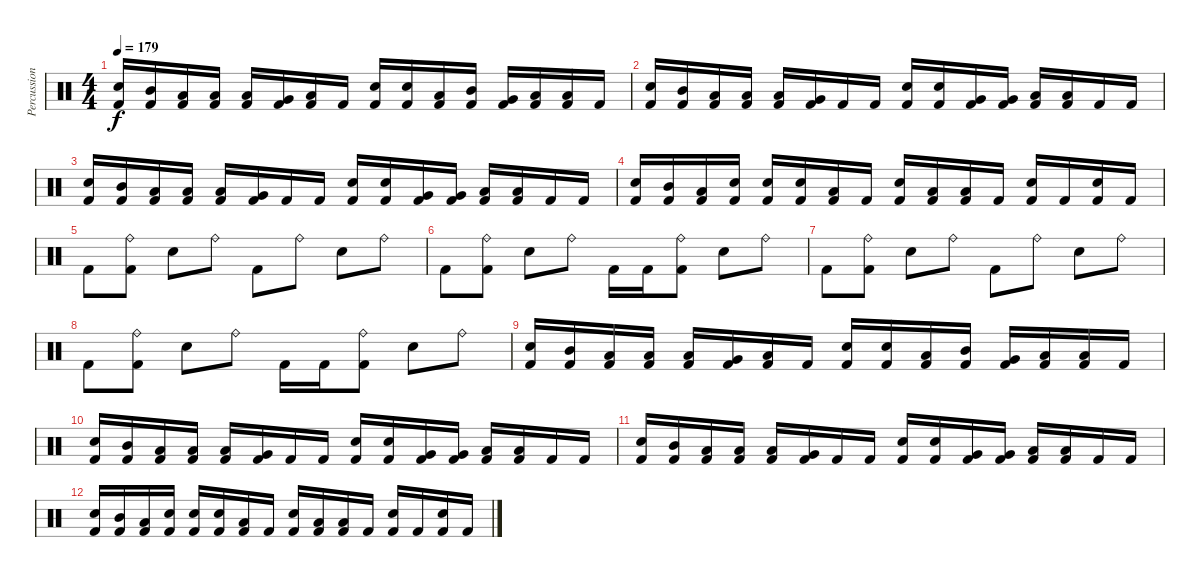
\track ("Percussion" "Percussion") {instrument percussion}
\staff {score}
\articulation defaults
\ts (4 4)
\tempo 179
\clef neutral
\ks c
("Electric Snare (hit)" "Kick (hit) 2").16{dy f} ("Mid Tom (hit)" "Kick (hit) 2").16 ("Low Tom (hit)" "Kick (hit) 2").16 ("Low Tom (hit)" "Kick (hit) 2").16 ("Low Tom (hit)" "Kick (hit) 2").16 ("Very Low Tom (hit)" "Kick (hit) 2").16 ("Low Floor Tom (hit)" "Kick (hit) 2").16 "Kick (hit) 2".16 ("Electric Snare (hit)" "Kick (hit) 2").16 ("Electric Snare (hit)" "Kick (hit) 2").16 ("Low Tom (hit)" "Kick (hit) 2").16 ("Mid Tom (hit)" "Kick (hit) 2").16 ("Very Low Tom (hit)" "Kick (hit) 2").16 ("Low Floor Tom (hit)" "Kick (hit) 2").16 ("Low Floor Tom (hit)" "Kick (hit) 2").16 "Kick (hit) 2".16 |
("Electric Snare (hit)" "Kick (hit) 2").16 ("Mid Tom (hit)" "Kick (hit) 2").16 ("Low Tom (hit)" "Kick (hit) 2").16 ("Low Tom (hit)" "Kick (hit) 2").16 ("Low Tom (hit)" "Kick (hit) 2").16 ("Very Low Tom (hit)" "Kick (hit) 2").16 "Kick (hit) 2".16 "Kick (hit) 2".16 ("Electric Snare (hit)" "Kick (hit) 2").16 ("Electric Snare (hit)" "Kick (hit) 2").16 ("Very Low Tom (hit)" "Kick (hit) 2").16 ("Very Low Tom (hit)" "Kick (hit) 2").16 ("Low Floor Tom (hit)" "Kick (hit) 2").16 ("Low Floor Tom (hit)" "Kick (hit) 2").16 "Kick (hit) 2".16 "Kick (hit) 2".16 |
("Electric Snare (hit)" "Kick (hit) 2").16 ("Mid Tom (hit)" "Kick (hit) 2").16 ("Low Tom (hit)" "Kick (hit) 2").16 ("Low Tom (hit)" "Kick (hit) 2").16 ("Low Tom (hit)" "Kick (hit) 2").16 ("Very Low Tom (hit)" "Kick (hit) 2").16 "Kick (hit) 2".16 "Kick (hit) 2".16 ("Electric Snare (hit)" "Kick (hit) 2").16 ("Electric Snare (hit)" "Kick (hit) 2").16 ("Very Low Tom (hit)" "Kick (hit) 2").16 ("Very Low Tom (hit)" "Kick (hit) 2").16 ("Low Floor Tom (hit)" "Kick (hit) 2").16 ("Low Floor Tom (hit)" "Kick (hit) 2").16 "Kick (hit) 2".16 "Kick (hit) 2".16 |
("Electric Snare (hit)" "Kick (hit) 2").16 ("Mid Tom (hit)" "Kick (hit) 2").16 ("Low Tom (hit)" "Kick (hit) 2").16 ("Electric Snare (hit)" "Kick (hit) 2").16 ("Electric Snare (hit)" "Kick (hit) 2").16 ("Electric Snare (hit)" "Kick (hit) 2").16 ("Low Floor Tom (hit)" "Kick (hit) 2").16 "Kick (hit) 2".16 ("Electric Snare (hit)" "Kick (hit) 2").16 ("Low Tom (hit)" "Kick (hit) 2").16 ("Low Tom (hit)" "Kick (hit) 2").16 "Kick (hit) 2".16 ("Electric Snare (hit)" "Kick (hit) 2").16 "Kick (hit) 2".16 ("Electric Snare (hit)" "Kick (hit) 2").16 "Kick (hit) 2".16 |
"Kick (hit) 2".8 ("Ride (bell)" "Kick (hit) 2").8 "Electric Snare (hit)".8 "Ride (bell)".8 "Kick (hit) 2".8 "Ride (bell)".8 "Electric Snare (hit)".8 "Ride (bell)".8 |
"Kick (hit) 2".8 ("Ride (bell)" "Kick (hit) 2").8 "Electric Snare (hit)".8 "Ride (bell)".8 "Kick (hit) 2".16 "Kick (hit) 2".16 ("Ride (bell)" "Kick (hit) 2").8 "Electric Snare (hit)".8 "Ride (bell)".8 |
"Kick (hit) 2".8 ("Ride (bell)" "Kick (hit) 2").8 "Electric Snare (hit)".8 "Ride (bell)".8 "Kick (hit) 2".8 "Ride (bell)".8 "Electric Snare (hit)".8 "Ride (bell)".8 |
"Kick (hit) 2".8 ("Ride (bell)" "Kick (hit) 2").8 "Electric Snare (hit)".8 "Ride (bell)".8 "Kick (hit) 2".16 "Kick (hit) 2".16 ("Ride (bell)" "Kick (hit) 2").8 "Electric Snare (hit)".8 "Ride (bell)".8 |
("Electric Snare (hit)" "Kick (hit) 2").16{volume 10} ("Mid Tom (hit)" "Kick (hit) 2").16 ("Low Tom (hit)" "Kick (hit) 2").16 ("Low Tom (hit)" "Kick (hit) 2").16 ("Low Tom (hit)" "Kick (hit) 2").16 ("Very Low Tom (hit)" "Kick (hit) 2").16 ("Low Floor Tom (hit)" "Kick (hit) 2").16 "Kick (hit) 2".16 ("Electric Snare (hit)" "Kick (hit) 2").16 ("Electric Snare (hit)" "Kick (hit) 2").16 ("Low Tom (hit)" "Kick (hit) 2").16 ("Mid Tom (hit)" "Kick (hit) 2").16 ("Very Low Tom (hit)" "Kick (hit) 2").16 ("Low Floor Tom (hit)" "Kick (hit) 2").16 ("Low Floor Tom (hit)" "Kick (hit) 2").16 "Kick (hit) 2".16 |
("Electric Snare (hit)" "Kick (hit) 2").16 ("Mid Tom (hit)" "Kick (hit) 2").16 ("Low Tom (hit)" "Kick (hit) 2").16 ("Low Tom (hit)" "Kick (hit) 2").16 ("Low Tom (hit)" "Kick (hit) 2").16 ("Very Low Tom (hit)" "Kick (hit) 2").16 "Kick (hit) 2".16 "Kick (hit) 2".16 ("Electric Snare (hit)" "Kick (hit) 2").16 ("Electric Snare (hit)" "Kick (hit) 2").16 ("Very Low Tom (hit)" "Kick (hit) 2").16 ("Very Low Tom (hit)" "Kick (hit) 2").16 ("Low Floor Tom (hit)" "Kick (hit) 2").16 ("Low Floor Tom (hit)" "Kick (hit) 2").16 "Kick (hit) 2".16 "Kick (hit) 2".16 |
("Electric Snare (hit)" "Kick (hit) 2").16{volume 0} ("Mid Tom (hit)" "Kick (hit) 2").16 ("Low Tom (hit)" "Kick (hit) 2").16 ("Low Tom (hit)" "Kick (hit) 2").16 ("Low Tom (hit)" "Kick (hit) 2").16 ("Very Low Tom (hit)" "Kick (hit) 2").16 "Kick (hit) 2".16 "Kick (hit) 2".16 ("Electric Snare (hit)" "Kick (hit) 2").16 ("Electric Snare (hit)" "Kick (hit) 2").16 ("Very Low Tom (hit)" "Kick (hit) 2").16 ("Very Low Tom (hit)" "Kick (hit) 2").16 ("Low Floor Tom (hit)" "Kick (hit) 2").16 ("Low Floor Tom (hit)" "Kick (hit) 2").16 "Kick (hit) 2".16 "Kick (hit) 2".16 |
("Electric Snare (hit)" "Kick (hit) 2").16 ("Mid Tom (hit)" "Kick (hit) 2").16 ("Low Tom (hit)" "Kick (hit) 2").16 ("Electric Snare (hit)" "Kick (hit) 2").16 ("Electric Snare (hit)" "Kick (hit) 2").16 ("Electric Snare (hit)" "Kick (hit) 2").16 ("Low Floor Tom (hit)" "Kick (hit) 2").16 "Kick (hit) 2".16 ("Electric Snare (hit)" "Kick (hit) 2").16 ("Low Tom (hit)" "Kick (hit) 2").16 ("Low Tom (hit)" "Kick (hit) 2").16 "Kick (hit) 2".16 ("Electric Snare (hit)" "Kick (hit) 2").16 "Kick (hit) 2".16 ("Electric Snare (hit)" "Kick (hit) 2").16 "Kick (hit) 2".16
